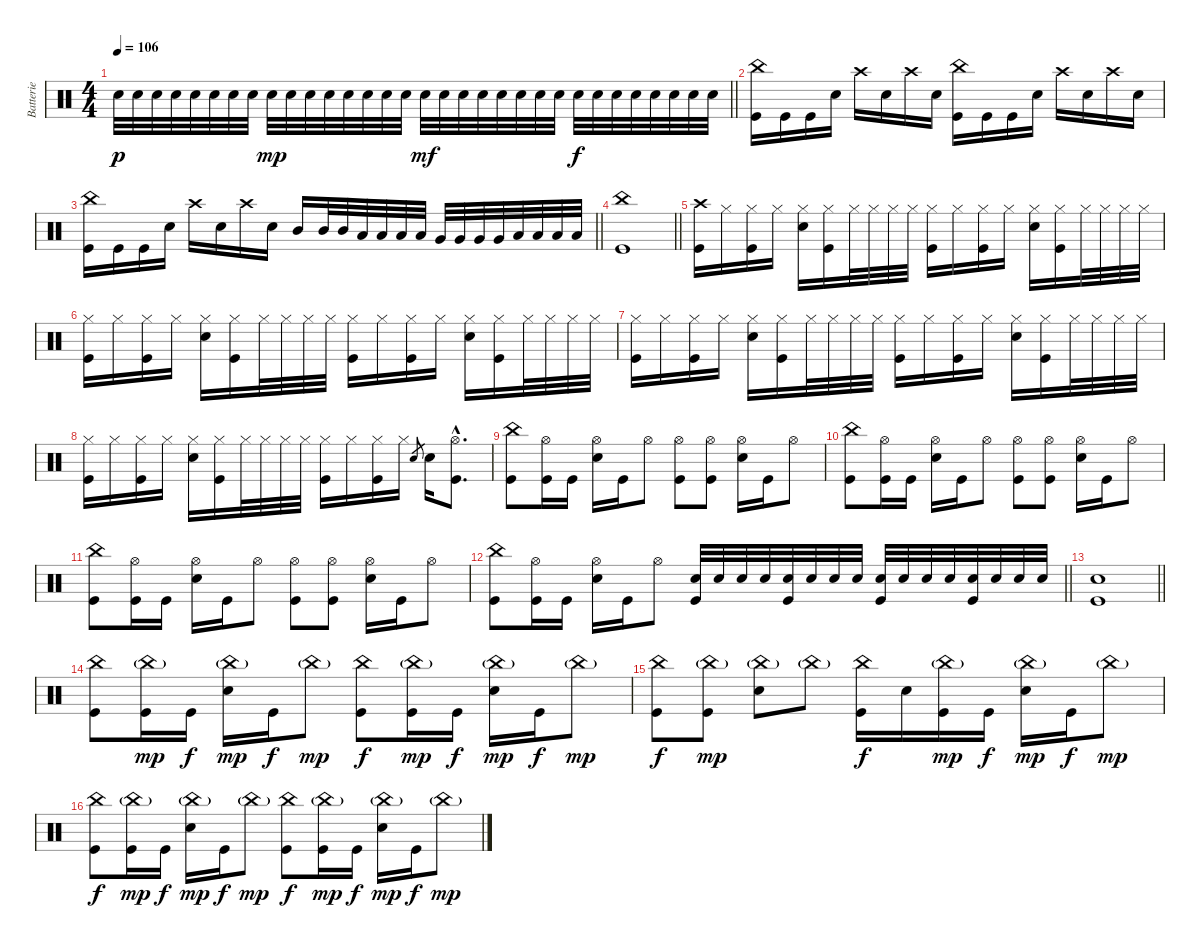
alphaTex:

\track ("Batterie" "Batterie") {instrument percussion}
\staff {score}
\articulation defaults
\ts (4 4)
\tempo 106
\clef neutral
\barLineRight lightlight
\ks c "Electric Snare (hit)".32{dy p} "Electric Snare (hit)".32 "Electric Snare (hit)".32 "Electric Snare (hit)".32 "Electric Snare (hit)".32 "Electric Snare (hit)".32 "Electric Snare (hit)".32 "Electric Snare (hit)".32 "Electric Snare (hit)".32{dy mp} "Electric Snare (hit)".32 "Electric Snare (hit)".32 "Electric Snare (hit)".32 "Electric Snare (hit)".32 "Electric Snare (hit)".32 "Electric Snare (hit)".32 "Electric Snare (hit)".32 "Electric Snare (hit)".32{dy mf} "Electric Snare (hit)".32 "Electric Snare (hit)".32 "Electric Snare (hit)".32 "Electric Snare (hit)".32 "Electric Snare (hit)".32 "Electric Snare (hit)".32 "Electric Snare (hit)".32 "Electric Snare (hit)".32{dy f} "Electric Snare (hit)".32 "Electric Snare (hit)".32 "Electric Snare (hit)".32 "Electric Snare (hit)".32 "Electric Snare (hit)".32 "Electric Snare (hit)".32 "Electric Snare (hit)".32
|
("China (hit)" "Kick (hit)").16 "Kick (hit)".16 "Kick (hit)".16 "Electric Snare (hit)".16 "Crash high (hit)".16 "Electric Snare (hit)".16 "Crash high (hit)".16 "Electric Snare (hit)".16 ("China (hit)" "Kick (hit)").16 "Kick (hit)".16 "Kick (hit)".16 "Electric Snare (hit)".16 "Crash high (hit)".16 "Electric Snare (hit)".16 "Crash high (hit)".16 "Electric Snare (hit)".16 |
\barLineRight lightlight
("China (hit)" "Kick (hit)").16 "Kick (hit)".16 "Kick (hit)".16 "Electric Snare (hit)".16 "Crash high (hit)".16 "Electric Snare (hit)".16 "Crash high (hit)".16 "Electric Snare (hit)".16 "Mid Tom (hit)".16 "Mid Tom (hit)".32 "Mid Tom (hit)".32 "Low Tom (hit)".32 "Low Tom (hit)".32 "Low Tom (hit)".32 "Low Tom (hit)".32 "Very Low Tom (hit)".32 "Very Low Tom (hit)".32 "Very Low Tom (hit)".32 "Very Low Tom (hit)".32 "Low Floor Tom (hit)".32 "Low Floor Tom (hit)".32 "Low Floor Tom (hit)".32 "Low Floor Tom (hit)".32 |
\barLineRight lightlight
("China (hit)" "Kick (hit)").1 |
("Crash high (hit)" "Kick (hit)").16 "Hi-Hat (closed)".16 ("Hi-Hat (closed)" "Kick (hit)").16 "Hi-Hat (closed)".16 ("Hi-Hat (closed)" "Electric Snare (hit)").16 ("Hi-Hat (closed)" "Kick (hit)").16 "Hi-Hat (closed)".32 "Hi-Hat (closed)".32 "Hi-Hat (closed)".32 "Hi-Hat (closed)".32 ("Hi-Hat (closed)" "Kick (hit)").16 "Hi-Hat (closed)".16 ("Hi-Hat (closed)" "Kick (hit)").16 "Hi-Hat (closed)".16 ("Hi-Hat (closed)" "Electric Snare (hit)").16 ("Hi-Hat (closed)" "Kick (hit)").16 "Hi-Hat (closed)".32 "Hi-Hat (closed)".32 "Hi-Hat (closed)".32 "Hi-Hat (closed)".32 |
("Hi-Hat (closed)" "Kick (hit)").16 "Hi-Hat (closed)".16 ("Hi-Hat (closed)" "Kick (hit)").16 "Hi-Hat (closed)".16 ("Hi-Hat (closed)" "Electric Snare (hit)").16 ("Hi-Hat (closed)" "Kick (hit)").16 "Hi-Hat (closed)".32 "Hi-Hat (closed)".32 "Hi-Hat (closed)".32 "Hi-Hat (closed)".32 ("Hi-Hat (closed)" "Kick (hit)").16 "Hi-Hat (closed)".16 ("Hi-Hat (closed)" "Kick (hit)").16 "Hi-Hat (closed)".16 ("Hi-Hat (closed)" "Electric Snare (hit)").16 ("Hi-Hat (closed)" "Kick (hit)").16 "Hi-Hat (closed)".32 "Hi-Hat (closed)".32 "Hi-Hat (closed)".32 "Hi-Hat (closed)".32 |
("Hi-Hat (closed)" "Kick (hit)").16 "Hi-Hat (closed)".16 ("Hi-Hat (closed)" "Kick (hit)").16 "Hi-Hat (closed)".16 ("Hi-Hat (closed)" "Electric Snare (hit)").16 ("Hi-Hat (closed)" "Kick (hit)").16 "Hi-Hat (closed)".32 "Hi-Hat (closed)".32 "Hi-Hat (closed)".32 "Hi-Hat (closed)".32 ("Hi-Hat (closed)" "Kick (hit)").16 "Hi-Hat (closed)".16 ("Hi-Hat (closed)" "Kick (hit)").16 "Hi-Hat (closed)".16 ("Hi-Hat (closed)" "Electric Snare (hit)").16 ("Hi-Hat (closed)" "Kick (hit)").16 "Hi-Hat (closed)".32 "Hi-Hat (closed)".32 "Hi-Hat (closed)".32 "Hi-Hat (closed)".32 |
("Hi-Hat (closed)" "Kick (hit)").16 "Hi-Hat (closed)".16 ("Hi-Hat (closed)" "Kick (hit)").16 "Hi-Hat (closed)".16 ("Hi-Hat (closed)" "Electric Snare (hit)").16 ("Hi-Hat (closed)" "Kick (hit)").16 "Hi-Hat (closed)".32 "Hi-Hat (closed)".32 "Hi-Hat (closed)".32 "Hi-Hat (closed)".32 ("Hi-Hat (closed)" "Kick (hit)").16 "Hi-Hat (closed)".16 ("Hi-Hat (closed)" "Kick (hit)").16 "Hi-Hat (closed)".16 "Electric Snare (hit)".8{gr} "Electric Snare (hit)".16 ("Hi-Hat (open)"{hac} "Kick (hit)"{hac}).8{d} |
("China (hit)" "Kick (hit)").8 ("Hi-Hat (open)" "Kick (hit)").16 "Kick (hit)".16 ("Hi-Hat (open)" "Electric Snare (hit)").16 "Kick (hit)".16 "Hi-Hat (open)".8 ("Hi-Hat (open)" "Kick (hit)").8 ("Hi-Hat (open)" "Kick (hit)").8 ("Hi-Hat (open)" "Electric Snare (hit)").16 "Kick (hit)".16 "Hi-Hat (open)".8 |
("China (hit)" "Kick (hit)").8 ("Hi-Hat (open)" "Kick (hit)").16 "Kick (hit)".16 ("Hi-Hat (open)" "Electric Snare (hit)").16 "Kick (hit)".16 "Hi-Hat (open)".8 ("Hi-Hat (open)" "Kick (hit)").8 ("Hi-Hat (open)" "Kick (hit)").8 ("Hi-Hat (open)" "Electric Snare (hit)").16 "Kick (hit)".16 "Hi-Hat (open)".8 |
("China (hit)" "Kick (hit)").8 ("Hi-Hat (open)" "Kick (hit)").16 "Kick (hit)".16 ("Hi-Hat (open)" "Electric Snare (hit)").16 "Kick (hit)".16 "Hi-Hat (open)".8 ("Hi-Hat (open)" "Kick (hit)").8 ("Hi-Hat (open)" "Kick (hit)").8 ("Hi-Hat (open)" "Electric Snare (hit)").16 "Kick (hit)".16 "Hi-Hat (open)".8 |
\barLineRight lightlight
("China (hit)" "Kick (hit)").8 ("Hi-Hat (open)" "Kick (hit)").16 "Kick (hit)".16 ("Hi-Hat (open)" "Electric Snare (hit)").16 "Kick (hit)".16 "Hi-Hat (open)".8 ("Electric Snare (hit)" "Kick (hit)").32 "Electric Snare (hit)".32 "Electric Snare (hit)".32 "Electric Snare (hit)".32 ("Electric Snare (hit)" "Kick (hit)").32 "Electric Snare (hit)".32 "Electric Snare (hit)".32 "Electric Snare (hit)".32 ("Electric Snare (hit)" "Kick (hit)").32 "Electric Snare (hit)".32 "Electric Snare (hit)".32 "Electric Snare (hit)".32 ("Electric Snare (hit)" "Kick (hit)").32 "Electric Snare (hit)".32 "Electric Snare (hit)".32 "Electric Snare (hit)".32 |
\barLineRight lightlight
("Electric Snare (hit)" "Kick (hit)").1 |
("China (hit)" "Kick (hit)").8 ("China (hit)"{g} "Kick (hit)").16{dy mp} "Kick (hit)".16{dy f} ("China (hit)"{g} "Electric Snare (hit)").16{dy mp} "Kick (hit)".16{dy f} "China (hit)"{g}.8{dy mp} ("China (hit)" "Kick (hit)").8{dy f} ("China (hit)"{g} "Kick (hit)").16{dy mp} "Kick (hit)".16{dy f} ("China (hit)"{g} "Electric Snare (hit)").16{dy mp} "Kick (hit)".16{dy f} "China (hit)"{g}.8{dy mp} |
("China (hit)" "Kick (hit)").8{dy f} ("China (hit)"{g} "Kick (hit)").8{dy mp} ("China (hit)"{g} "Electric Snare (hit)").8 "China (hit)"{g}.8 ("China (hit)" "Kick (hit)").16{dy f} "Electric Snare (hit)".16 ("China (hit)"{g} "Kick (hit)").16{dy mp} "Kick (hit)".16{dy f} ("China (hit)"{g} "Electric Snare (hit)").16{dy mp} "Kick (hit)".16{dy f} "China (hit)"{g}.8{dy mp} |
("China (hit)" "Kick (hit)").8{dy f} ("China (hit)"{g} "Kick (hit)").16{dy mp} "Kick (hit)".16{dy f} ("China (hit)"{g} "Electric Snare (hit)").16{dy mp} "Kick (hit)".16{dy f} "China (hit)"{g}.8{dy mp} ("China (hit)" "Kick (hit)").8{dy f} ("China (hit)"{g} "Kick (hit)").16{dy mp} "Kick (hit)".16{dy f} ("China (hit)"{g} "Electric Snare (hit)").16{dy mp} "Kick (hit)".16{dy f} "China (hit)"{g}.8{dy mp}
